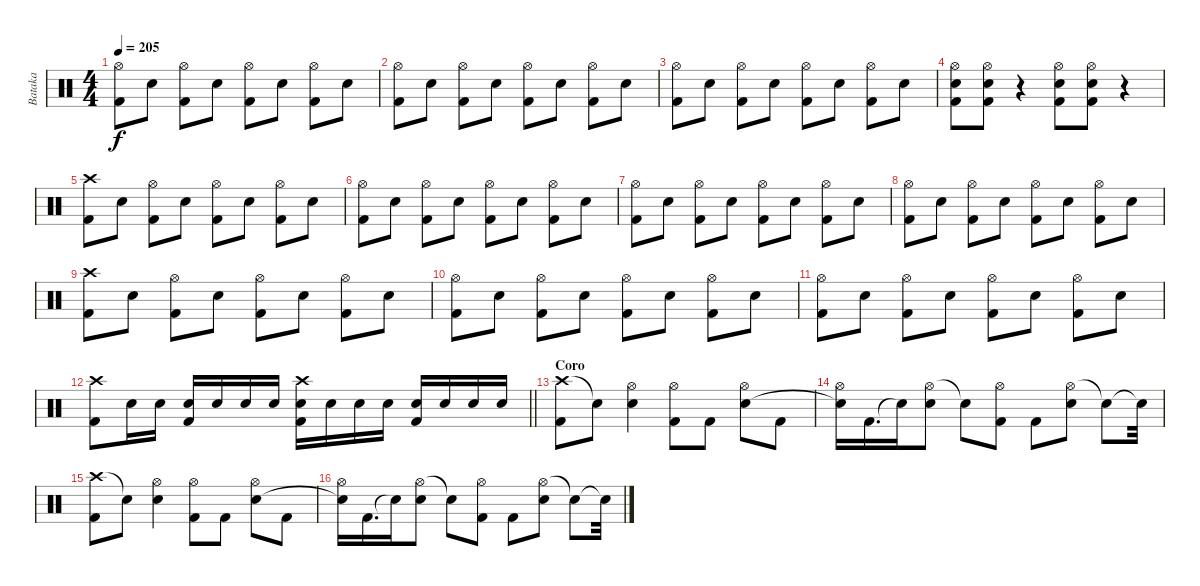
\track ("Bataka" "Bataka") {instrument percussion}
\staff {score}
\articulation defaults
\ts (4 4)
\tempo 205
\clef neutral
\ks c
("Hi-Hat (open)" "Kick (hit) 2").8{dy f} "Snare (hit) 2".8 ("Hi-Hat (open)" "Kick (hit) 2").8 "Snare (hit) 2".8 ("Hi-Hat (open)" "Kick (hit) 2").8 "Snare (hit) 2".8 ("Hi-Hat (open)" "Kick (hit) 2").8 "Snare (hit) 2".8 |
("Hi-Hat (open)" "Kick (hit) 2").8 "Snare (hit) 2".8 ("Hi-Hat (open)" "Kick (hit) 2").8 "Snare (hit) 2".8 ("Hi-Hat (open)" "Kick (hit) 2").8 "Snare (hit) 2".8 ("Hi-Hat (open)" "Kick (hit) 2").8 "Snare (hit) 2".8 |
("Hi-Hat (open)" "Kick (hit) 2").8 "Snare (hit) 2".8 ("Hi-Hat (open)" "Kick (hit) 2").8 "Snare (hit) 2".8 ("Hi-Hat (open)" "Kick (hit) 2").8 "Snare (hit) 2".8 ("Hi-Hat (open)" "Kick (hit) 2").8 "Snare (hit) 2".8 |
("Hi-Hat (open)" "Snare (hit) 2" "Kick (hit) 2").8 ("Hi-Hat (open)" "Snare (hit) 2" "Kick (hit) 2").8 r.4 ("Hi-Hat (open)" "Snare (hit) 2" "Kick (hit) 2").8 ("Hi-Hat (open)" "Snare (hit) 2" "Kick (hit) 2").8 r.4 |
("Crash high (hit)" "Kick (hit) 2").8 "Snare (hit) 2".8 ("Hi-Hat (open)" "Kick (hit) 2").8 "Snare (hit) 2".8 ("Hi-Hat (open)" "Kick (hit) 2").8 "Snare (hit) 2".8 ("Hi-Hat (open)" "Kick (hit) 2").8 "Snare (hit) 2".8 |
("Hi-Hat (open)" "Kick (hit) 2").8 "Snare (hit) 2".8 ("Hi-Hat (open)" "Kick (hit) 2").8 "Snare (hit) 2".8 ("Hi-Hat (open)" "Kick (hit) 2").8 "Snare (hit) 2".8 ("Hi-Hat (open)" "Kick (hit) 2").8 "Snare (hit) 2".8 |
("Hi-Hat (open)" "Kick (hit) 2").8 "Snare (hit) 2".8 ("Hi-Hat (open)" "Kick (hit) 2").8 "Snare (hit) 2".8 ("Hi-Hat (open)" "Kick (hit) 2").8 "Snare (hit) 2".8 ("Hi-Hat (open)" "Kick (hit) 2").8 "Snare (hit) 2".8 |
("Hi-Hat (open)" "Kick (hit) 2").8 "Snare (hit) 2".8 ("Hi-Hat (open)" "Kick (hit) 2").8 "Snare (hit) 2".8 ("Hi-Hat (open)" "Kick (hit) 2").8 "Snare (hit) 2".8 ("Hi-Hat (open)" "Kick (hit) 2").8 "Snare (hit) 2".8 |
("Crash high (hit)" "Kick (hit) 2").8 "Snare (hit) 2".8 ("Hi-Hat (open)" "Kick (hit) 2").8 "Snare (hit) 2".8 ("Hi-Hat (open)" "Kick (hit) 2").8 "Snare (hit) 2".8 ("Hi-Hat (open)" "Kick (hit) 2").8 "Snare (hit) 2".8 |
("Hi-Hat (open)" "Kick (hit) 2").8 "Snare (hit) 2".8 ("Hi-Hat (open)" "Kick (hit) 2").8 "Snare (hit) 2".8 ("Hi-Hat (open)" "Kick (hit) 2").8 "Snare (hit) 2".8 ("Hi-Hat (open)" "Kick (hit) 2").8 "Snare (hit) 2".8 |
("Hi-Hat (open)" "Kick (hit) 2").8 "Snare (hit) 2".8 ("Hi-Hat (open)" "Kick (hit) 2").8 "Snare (hit) 2".8 ("Hi-Hat (open)" "Kick (hit) 2").8 "Snare (hit) 2".8 ("Hi-Hat (open)" "Kick (hit) 2").8 "Snare (hit) 2".8 |
\barLineRight lightlight
("Crash high (hit)" "Kick (hit) 2").8 "Snare (hit) 2".16 "Snare (hit) 2".16 ("Snare (hit) 2" "Kick (hit) 2").16 "Snare (hit) 2".16 "Snare (hit) 2".16 "Snare (hit) 2".16 ("Crash high (hit)" "Snare (hit) 2" "Kick (hit) 2").16 "Snare (hit) 2".16 "Snare (hit) 2".16 "Snare (hit) 2".16 ("Snare (hit) 2" "Kick (hit) 2").16 "Snare (hit) 2".16 "Snare (hit) 2".16 "Snare (hit) 2".16 |
\section ("" "Coro")
("Crash high (hit)" "Kick (hit) 2").8 "Snare (hit)"{t}.8 ("Hi-Hat (open)" "Snare (hit) 2").4 ("Hi-Hat (open)" "Kick (hit) 2").8 "Kick (hit) 2".8 ("Hi-Hat (open)" "Snare (hit) 2").8 "Kick (hit) 2".8 |
("Hi-Hat (open)" "Snare (hit)"{t}).16 "Kick (hit) 2".16{d} "Snare (hit)"{t}.16 ("Hi-Hat (open)" "Snare (hit) 2").8 "Snare (hit)"{t}.8 ("Hi-Hat (open)" "Kick (hit) 2").8 "Kick (hit) 2".8 ("Hi-Hat (open)" "Snare (hit) 2").8 "Snare (hit)"{t}.8 "Snare (hit)"{t}.32 |
("Crash high (hit)" "Kick (hit) 2").8 "Snare (hit)"{t}.8 ("Hi-Hat (open)" "Snare (hit) 2").4 ("Hi-Hat (open)" "Kick (hit) 2").8 "Kick (hit) 2".8 ("Hi-Hat (open)" "Snare (hit) 2").8 "Kick (hit) 2".8 |
("Hi-Hat (open)" "Snare (hit)"{t}).16 "Kick (hit) 2".16{d} "Snare (hit)"{t}.16 ("Hi-Hat (open)" "Snare (hit) 2").8 "Snare (hit)"{t}.8 ("Hi-Hat (open)" "Kick (hit) 2").8 "Kick (hit) 2".8 ("Hi-Hat (open)" "Snare (hit) 2").8 "Snare (hit)"{t}.8 "Snare (hit)"{t}.32
